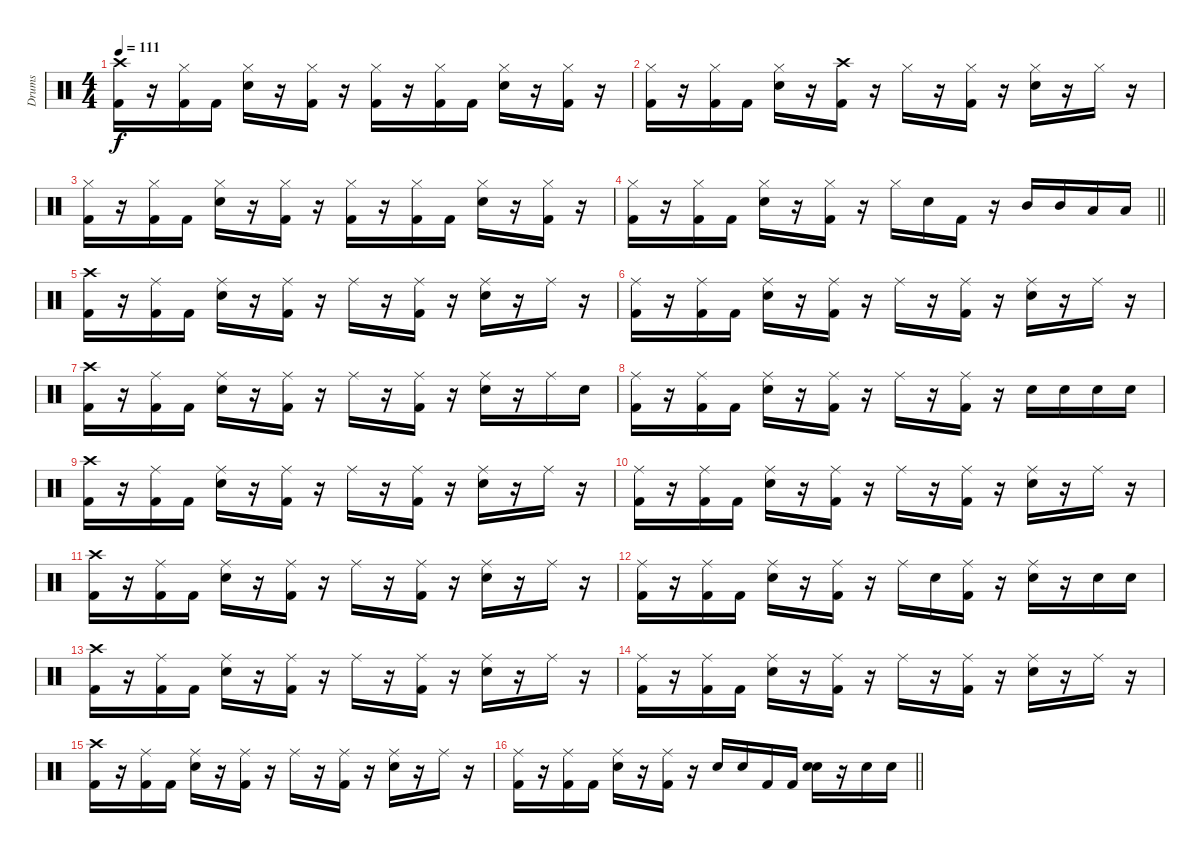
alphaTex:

\track ("Drums" "Drums") {instrument percussion}
\staff {score}
\articulation defaults
\ts (4 4)
\tempo 111
\clef neutral
\ks c
("Crash high (hit)" "Kick (hit) 2").16{dy f} r.16 ("Hi-Hat (closed)" "Kick (hit) 2").16 "Kick (hit) 2".16 ("Hi-Hat (closed)" "Snare (hit) 2").16 r.16 ("Hi-Hat (closed)" "Kick (hit) 2").16 r.16 ("Hi-Hat (closed)" "Kick (hit) 2").16 r.16 ("Hi-Hat (closed)" "Kick (hit) 2").16 "Kick (hit) 2".16 ("Hi-Hat (closed)" "Snare (hit) 2").16 r.16 ("Hi-Hat (closed)" "Kick (hit) 2").16 r.16 |
("Hi-Hat (closed)" "Kick (hit) 2").16 r.16 ("Hi-Hat (closed)" "Kick (hit) 2").16 "Kick (hit) 2".16 ("Hi-Hat (closed)" "Snare (hit) 2").16 r.16 ("Crash high (hit)" "Kick (hit) 2").16 r.16 "Hi-Hat (closed)".16 r.16 ("Hi-Hat (closed)" "Kick (hit) 2").16 r.16 ("Hi-Hat (closed)" "Snare (hit) 2").16 r.16 "Hi-Hat (closed)".16 r.16 |
("Hi-Hat (closed)" "Kick (hit) 2").16 r.16 ("Hi-Hat (closed)" "Kick (hit) 2").16 "Kick (hit) 2".16 ("Hi-Hat (closed)" "Snare (hit) 2").16 r.16 ("Hi-Hat (closed)" "Kick (hit) 2").16 r.16 ("Hi-Hat (closed)" "Kick (hit) 2").16 r.16 ("Hi-Hat (closed)" "Kick (hit) 2").16 "Kick (hit) 2".16 ("Hi-Hat (closed)" "Snare (hit) 2").16 r.16 ("Hi-Hat (closed)" "Kick (hit) 2").16 r.16 |
\barLineRight lightlight
("Hi-Hat (closed)" "Kick (hit) 2").16 r.16 ("Hi-Hat (closed)" "Kick (hit) 2").16 "Kick (hit) 2".16 ("Hi-Hat (closed)" "Snare (hit) 2").16 r.16 ("Hi-Hat (closed)" "Kick (hit) 2").16 r.16 "Hi-Hat (closed)".16 "Snare (hit) 2".16 "Kick (hit) 2".16 r.16 "Mid Tom (hit)".16 "Mid Tom (hit)".16 "Low Tom (hit)".16 "Low Tom (hit)".16 |
("Crash high (hit)" "Kick (hit) 2").16 r.16 ("Ride (middle)" "Kick (hit) 2").16 "Kick (hit) 2".16 ("Ride (middle)" "Snare (hit) 2").16 r.16 ("Ride (middle)" "Kick (hit) 2").16 r.16 "Ride (middle)".16 r.16 ("Ride (middle)" "Kick (hit) 2").16 r.16 ("Ride (middle)" "Snare (hit) 2").16 r.16 "Ride (middle)".16 r.16 |
("Ride (middle)" "Kick (hit) 2").16 r.16 ("Ride (middle)" "Kick (hit) 2").16 "Kick (hit) 2".16 ("Ride (middle)" "Snare (hit) 2").16 r.16 ("Ride (middle)" "Kick (hit) 2").16 r.16 "Ride (middle)".16 r.16 ("Ride (middle)" "Kick (hit) 2").16 r.16 ("Ride (middle)" "Snare (hit) 2").16 r.16 "Ride (middle)".16 r.16 |
("Crash high (hit)" "Kick (hit) 2").16 r.16 ("Ride (middle)" "Kick (hit) 2").16 "Kick (hit) 2".16 ("Ride (middle)" "Snare (hit) 2").16 r.16 ("Ride (middle)" "Kick (hit) 2").16 r.16 "Ride (middle)".16 r.16 ("Ride (middle)" "Kick (hit) 2").16 r.16 ("Ride (middle)" "Snare (hit) 2").16 r.16 "Ride (middle)".16 "Snare (hit) 2".16 |
("Ride (middle)" "Kick (hit) 2").16 r.16 ("Ride (middle)" "Kick (hit) 2").16 "Kick (hit) 2".16 ("Ride (middle)" "Snare (hit) 2").16 r.16 ("Ride (middle)" "Kick (hit) 2").16 r.16 "Ride (middle)".16 r.16 ("Ride (middle)" "Kick (hit) 2").16 r.16 "Snare (hit) 2".16 "Snare (hit) 2".16 "Snare (hit) 2".16 "Snare (hit) 2".16 |
("Crash high (hit)" "Kick (hit) 2").16 r.16 ("Ride (middle)" "Kick (hit) 2").16 "Kick (hit) 2".16 ("Ride (middle)" "Snare (hit) 2").16 r.16 ("Ride (middle)" "Kick (hit) 2").16 r.16 "Ride (middle)".16 r.16 ("Ride (middle)" "Kick (hit) 2").16 r.16 ("Ride (middle)" "Snare (hit) 2").16 r.16 "Ride (middle)".16 r.16 |
("Ride (middle)" "Kick (hit) 2").16 r.16 ("Ride (middle)" "Kick (hit) 2").16 "Kick (hit) 2".16 ("Ride (middle)" "Snare (hit) 2").16 r.16 ("Ride (middle)" "Kick (hit) 2").16 r.16 "Ride (middle)".16 r.16 ("Ride (middle)" "Kick (hit) 2").16 r.16 ("Ride (middle)" "Snare (hit) 2").16 r.16 "Ride (middle)".16 r.16 |
("Crash high (hit)" "Kick (hit) 2").16 r.16 ("Ride (middle)" "Kick (hit) 2").16 "Kick (hit) 2".16 ("Ride (middle)" "Snare (hit) 2").16 r.16 ("Ride (middle)" "Kick (hit) 2").16 r.16 "Ride (middle)".16 r.16 ("Ride (middle)" "Kick (hit) 2").16 r.16 ("Ride (middle)" "Snare (hit) 2").16 r.16 "Ride (middle)".16 r.16 |
("Ride (middle)" "Kick (hit) 2").16 r.16 ("Ride (middle)" "Kick (hit) 2").16 "Kick (hit) 2".16 ("Ride (middle)" "Snare (hit) 2").16 r.16 ("Ride (middle)" "Kick (hit) 2").16 r.16 "Ride (middle)".16 "Snare (hit) 2".16 ("Ride (middle)" "Kick (hit) 2").16 r.16 ("Ride (middle)" "Snare (hit) 2").16 r.16 "Snare (hit) 2".16 "Snare (hit) 2".16 |
("Crash high (hit)" "Kick (hit) 2").16 r.16 ("Ride (middle)" "Kick (hit) 2").16 "Kick (hit) 2".16 ("Ride (middle)" "Snare (hit) 2").16 r.16 ("Ride (middle)" "Kick (hit) 2").16 r.16 "Ride (middle)".16 r.16 ("Ride (middle)" "Kick (hit) 2").16 r.16 ("Ride (middle)" "Snare (hit) 2").16 r.16 "Ride (middle)".16 r.16 |
("Ride (middle)" "Kick (hit) 2").16 r.16 ("Ride (middle)" "Kick (hit) 2").16 "Kick (hit) 2".16 ("Ride (middle)" "Snare (hit) 2").16 r.16 ("Ride (middle)" "Kick (hit) 2").16 r.16 "Ride (middle)".16 r.16 ("Ride (middle)" "Kick (hit) 2").16 r.16 ("Ride (middle)" "Snare (hit) 2").16 r.16 "Ride (middle)".16 r.16 |
("Crash high (hit)" "Kick (hit) 2").16 r.16 ("Ride (middle)" "Kick (hit) 2").16 "Kick (hit) 2".16 ("Ride (middle)" "Snare (hit) 2").16 r.16 ("Ride (middle)" "Kick (hit) 2").16 r.16 "Ride (middle)".16 r.16 ("Ride (middle)" "Kick (hit) 2").16 r.16 ("Ride (middle)" "Snare (hit) 2").16 r.16 "Ride (middle)".16 r.16 |
\barLineRight lightlight
("Ride (middle)" "Kick (hit) 2").16 r.16 ("Ride (middle)" "Kick (hit) 2").16 "Kick (hit) 2".16 ("Ride (middle)" "Snare (hit) 2").16 r.16 ("Ride (middle)" "Kick (hit) 2").16 r.16 "Snare (hit) 2".16 "Snare (hit) 2".16 "Kick (hit) 2".16 "Kick (hit) 2".16 ("Electric Snare (hit)" "Snare (hit) 2").16 r.16 "Snare (hit) 2".16 "Snare (hit) 2".16
